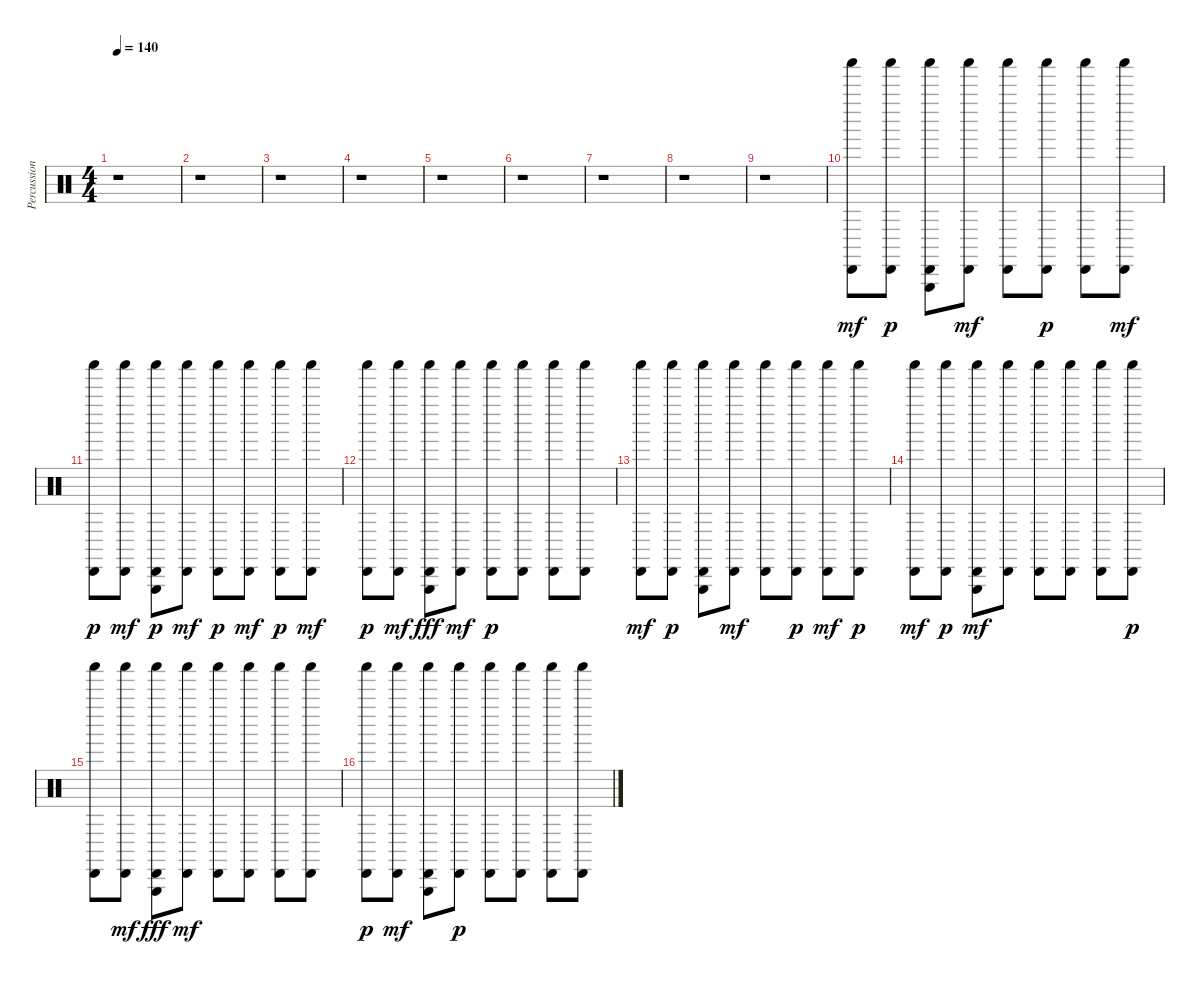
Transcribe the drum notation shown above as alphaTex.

\track ("Percussion Std Drums" "Percussion") {instrument percussion}
\staff {score}
\articulation defaults
\ts (4 4)
\tempo 140
\clef neutral
\ks c
r.1{dy f} |
r.1 |
r.1 |
r.1 |
r.1 |
r.1 |
r.1 |
r.1 |
r.1 |
("Shaker (hit)" "Cabasa (hit)").8{dy mf} ("Cabasa (hit)" "Shaker (hit)").8{dy p} ("Triangle (hit)" "Cabasa (hit)" "Shaker (hit)").8 ("Shaker (hit)" "Cabasa (hit)").8{dy mf} ("Shaker (hit)" "Cabasa (hit)").8 ("Cabasa (hit)" "Shaker (hit)").8{dy p} ("Cabasa (hit)" "Shaker (hit)").8 ("Shaker (hit)" "Cabasa (hit)").8{dy mf} |
("Cabasa (hit)" "Shaker (hit)").8{dy p} ("Shaker (hit)" "Cabasa (hit)").8{dy mf} ("Triangle (hit)" "Cabasa (hit)" "Shaker (hit)").8{dy p} ("Shaker (hit)" "Cabasa (hit)").8{dy mf} ("Cabasa (hit)" "Shaker (hit)").8{dy p} ("Shaker (hit)" "Cabasa (hit)").8{dy mf} ("Cabasa (hit)" "Shaker (hit)").8{dy p} ("Shaker (hit)" "Cabasa (hit)").8{dy mf} |
("Cabasa (hit)" "Shaker (hit)").8{dy p} ("Shaker (hit)" "Cabasa (hit)").8{dy mf} ("Cabasa (hit)" "Shaker (hit)" "Triangle (hit)").8{dy fff} ("Shaker (hit)" "Cabasa (hit)").8{dy mf} ("Cabasa (hit)" "Shaker (hit)").8{dy p} ("Cabasa (hit)" "Shaker (hit)").8 ("Cabasa (hit)" "Shaker (hit)").8 ("Cabasa (hit)" "Shaker (hit)").8 |
("Shaker (hit)" "Cabasa (hit)").8{dy mf} ("Cabasa (hit)" "Shaker (hit)").8{dy p} ("Cabasa (hit)" "Triangle (hit)" "Shaker (hit)").8 ("Shaker (hit)" "Cabasa (hit)").8{dy mf} ("Shaker (hit)" "Cabasa (hit)").8 ("Cabasa (hit)" "Shaker (hit)").8{dy p} ("Shaker (hit)" "Cabasa (hit)").8{dy mf} ("Cabasa (hit)" "Shaker (hit)").8{dy p} |
("Shaker (hit)" "Cabasa (hit)").8{dy mf} ("Cabasa (hit)" "Shaker (hit)").8{dy p} ("Shaker (hit)" "Triangle (hit)" "Cabasa (hit)").8{dy mf} ("Shaker (hit)" "Cabasa (hit)").8 ("Shaker (hit)" "Cabasa (hit)").8 ("Shaker (hit)" "Cabasa (hit)").8 ("Shaker (hit)" "Cabasa (hit)").8 ("Cabasa (hit)" "Shaker (hit)").8{dy p} |
("Cabasa (hit)" "Shaker (hit)").8 ("Shaker (hit)" "Cabasa (hit)").8{dy mf} ("Cabasa (hit)" "Shaker (hit)" "Triangle (hit)").8{dy fff} ("Shaker (hit)" "Cabasa (hit)").8{dy mf} ("Shaker (hit)" "Cabasa (hit)").8 ("Shaker (hit)" "Cabasa (hit)").8 ("Shaker (hit)" "Cabasa (hit)").8 ("Shaker (hit)" "Cabasa (hit)").8 |
("Cabasa (hit)" "Shaker (hit)").8{dy p} ("Shaker (hit)" "Cabasa (hit)").8{dy mf} ("Triangle (hit)" "Shaker (hit)" "Cabasa (hit)").8 ("Cabasa (hit)" "Shaker (hit)").8{dy p} ("Cabasa (hit)" "Shaker (hit)").8 ("Cabasa (hit)" "Shaker (hit)").8 ("Cabasa (hit)" "Shaker (hit)").8 ("Cabasa (hit)" "Shaker (hit)").8
